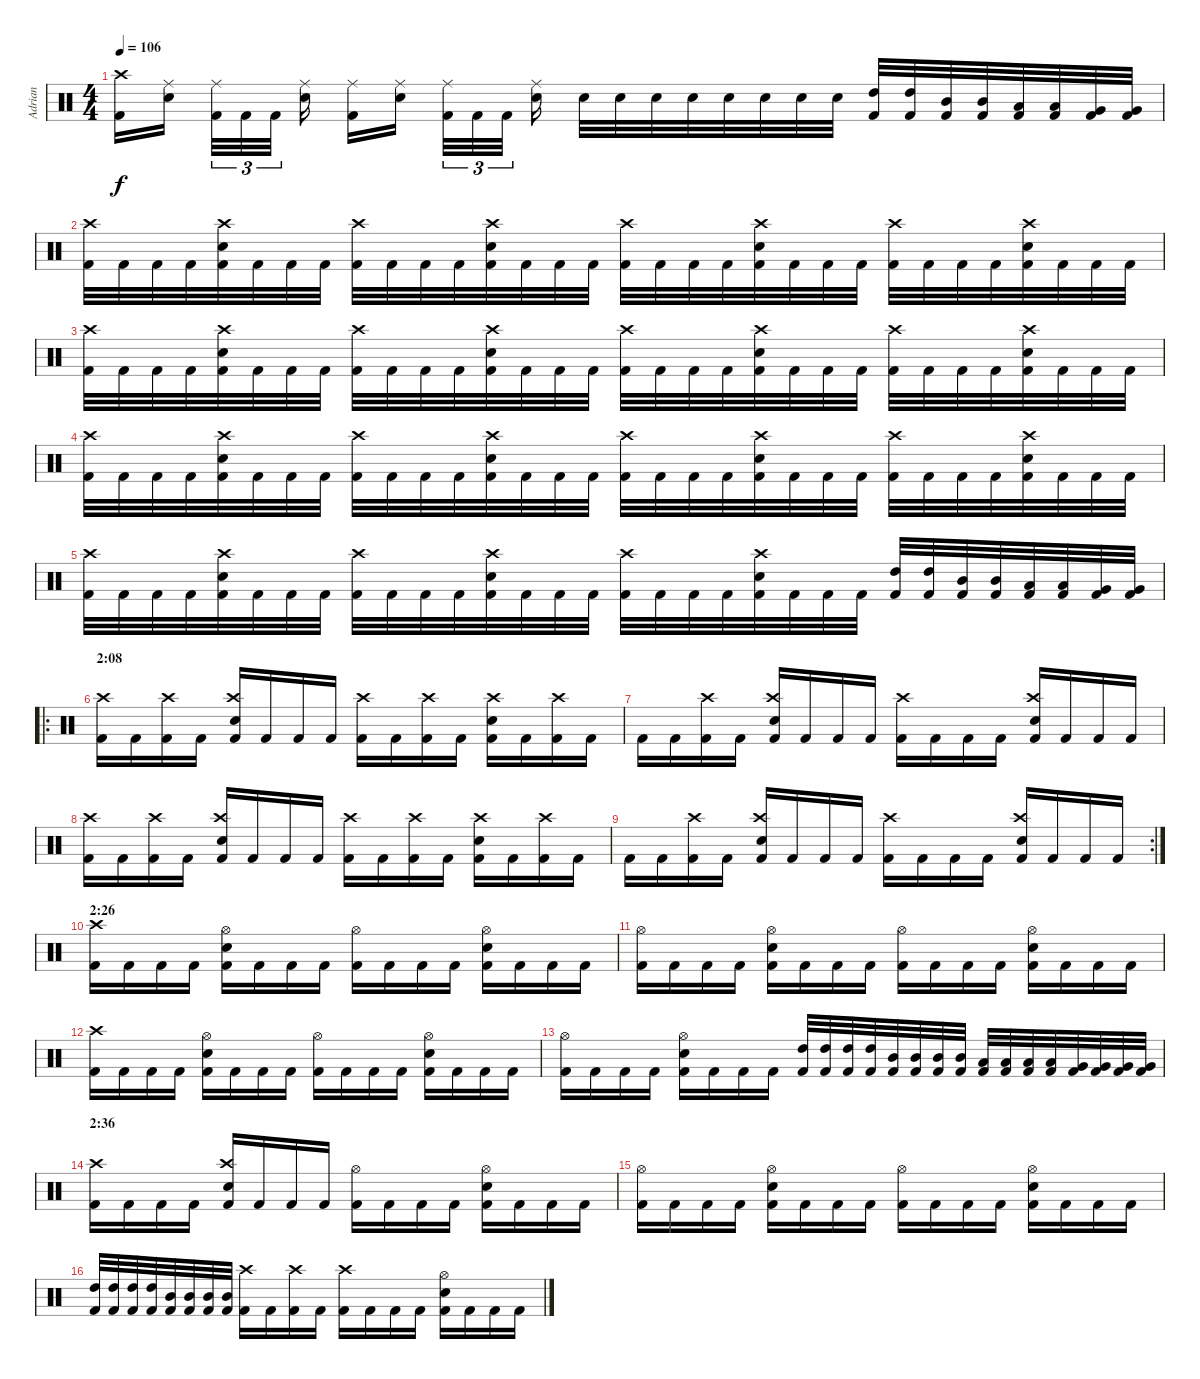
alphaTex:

\track ("Adrian" "Adrian") {instrument percussion}
\staff {score}
\articulation defaults
\ts (4 4)
\tempo 106
\clef neutral
\ks c
("Kick (hit) 2" "Crash high (hit)").16{dy f} ("Snare (hit) 2" "Ride (middle)").16 ("Kick (hit) 2" "Ride (middle)").32{tu (3 2)} "Kick (hit) 2".32{tu (3 2)} "Kick (hit) 2".32{tu (3 2)} ("Snare (hit) 2" "Ride (middle)").16 ("Kick (hit) 2" "Ride (middle)").16 ("Snare (hit) 2" "Ride (middle)").16 ("Kick (hit) 2" "Ride (middle)").32{tu (3 2)} "Kick (hit) 2".32{tu (3 2)} "Kick (hit) 2".32{tu (3 2)} ("Snare (hit) 2" "Ride (middle)").16 "Snare (hit) 2".32 "Snare (hit) 2".32 "Snare (hit) 2".32 "Snare (hit) 2".32 "Snare (hit) 2".32 "Snare (hit) 2".32 "Snare (hit) 2".32 "Snare (hit) 2".32 ("Kick (hit) 2" "High Tom (hit)").32 ("Kick (hit) 2" "High Tom (hit)").32 ("Kick (hit) 2" "Mid Tom (hit)").32 ("Kick (hit) 2" "Mid Tom (hit)").32 ("Kick (hit) 2" "Low Tom (hit)").32 ("Kick (hit) 2" "Low Tom (hit)").32 ("Kick (hit) 2" "Very Low Tom (hit)").32 ("Kick (hit) 2" "Very Low Tom (hit)").32 |
("Kick (hit) 2" "Crash high (hit)").32 "Kick (hit) 2".32 "Kick (hit) 2".32 "Kick (hit) 2".32 ("Kick (hit) 2" "Snare (hit) 2" "Crash high (hit)").32 "Kick (hit) 2".32 "Kick (hit) 2".32 "Kick (hit) 2".32 ("Kick (hit) 2" "Crash high (hit)").32 "Kick (hit) 2".32 "Kick (hit) 2".32 "Kick (hit) 2".32 ("Kick (hit) 2" "Snare (hit) 2" "Crash high (hit)").32 "Kick (hit) 2".32 "Kick (hit) 2".32 "Kick (hit) 2".32 ("Kick (hit) 2" "Crash high (hit)").32 "Kick (hit) 2".32 "Kick (hit) 2".32 "Kick (hit) 2".32 ("Kick (hit) 2" "Snare (hit) 2" "Crash high (hit)").32 "Kick (hit) 2".32 "Kick (hit) 2".32 "Kick (hit) 2".32 ("Kick (hit) 2" "Crash high (hit)").32 "Kick (hit) 2".32 "Kick (hit) 2".32 "Kick (hit) 2".32 ("Kick (hit) 2" "Snare (hit) 2" "Crash high (hit)").32 "Kick (hit) 2".32 "Kick (hit) 2".32 "Kick (hit) 2".32 |
("Kick (hit) 2" "Crash high (hit)").32 "Kick (hit) 2".32 "Kick (hit) 2".32 "Kick (hit) 2".32 ("Kick (hit) 2" "Snare (hit) 2" "Crash high (hit)").32 "Kick (hit) 2".32 "Kick (hit) 2".32 "Kick (hit) 2".32 ("Kick (hit) 2" "Crash high (hit)").32 "Kick (hit) 2".32 "Kick (hit) 2".32 "Kick (hit) 2".32 ("Kick (hit) 2" "Snare (hit) 2" "Crash high (hit)").32 "Kick (hit) 2".32 "Kick (hit) 2".32 "Kick (hit) 2".32 ("Kick (hit) 2" "Crash high (hit)").32 "Kick (hit) 2".32 "Kick (hit) 2".32 "Kick (hit) 2".32 ("Kick (hit) 2" "Snare (hit) 2" "Crash high (hit)").32 "Kick (hit) 2".32 "Kick (hit) 2".32 "Kick (hit) 2".32 ("Kick (hit) 2" "Crash high (hit)").32 "Kick (hit) 2".32 "Kick (hit) 2".32 "Kick (hit) 2".32 ("Kick (hit) 2" "Snare (hit) 2" "Crash high (hit)").32 "Kick (hit) 2".32 "Kick (hit) 2".32 "Kick (hit) 2".32 |
("Kick (hit) 2" "Crash high (hit)").32 "Kick (hit) 2".32 "Kick (hit) 2".32 "Kick (hit) 2".32 ("Kick (hit) 2" "Snare (hit) 2" "Crash high (hit)").32 "Kick (hit) 2".32 "Kick (hit) 2".32 "Kick (hit) 2".32 ("Kick (hit) 2" "Crash high (hit)").32 "Kick (hit) 2".32 "Kick (hit) 2".32 "Kick (hit) 2".32 ("Kick (hit) 2" "Snare (hit) 2" "Crash high (hit)").32 "Kick (hit) 2".32 "Kick (hit) 2".32 "Kick (hit) 2".32 ("Kick (hit) 2" "Crash high (hit)").32 "Kick (hit) 2".32 "Kick (hit) 2".32 "Kick (hit) 2".32 ("Kick (hit) 2" "Snare (hit) 2" "Crash high (hit)").32 "Kick (hit) 2".32 "Kick (hit) 2".32 "Kick (hit) 2".32 ("Kick (hit) 2" "Crash high (hit)").32 "Kick (hit) 2".32 "Kick (hit) 2".32 "Kick (hit) 2".32 ("Kick (hit) 2" "Snare (hit) 2" "Crash high (hit)").32 "Kick (hit) 2".32 "Kick (hit) 2".32 "Kick (hit) 2".32 |
("Kick (hit) 2" "Crash high (hit)").32 "Kick (hit) 2".32 "Kick (hit) 2".32 "Kick (hit) 2".32 ("Kick (hit) 2" "Snare (hit) 2" "Crash high (hit)").32 "Kick (hit) 2".32 "Kick (hit) 2".32 "Kick (hit) 2".32 ("Kick (hit) 2" "Crash high (hit)").32 "Kick (hit) 2".32 "Kick (hit) 2".32 "Kick (hit) 2".32 ("Kick (hit) 2" "Snare (hit) 2" "Crash high (hit)").32 "Kick (hit) 2".32 "Kick (hit) 2".32 "Kick (hit) 2".32 ("Kick (hit) 2" "Crash high (hit)").32 "Kick (hit) 2".32 "Kick (hit) 2".32 "Kick (hit) 2".32 ("Kick (hit) 2" "Snare (hit) 2" "Crash high (hit)").32 "Kick (hit) 2".32 "Kick (hit) 2".32 "Kick (hit) 2".32 ("Kick (hit) 2" "High Tom (hit)").32 ("Kick (hit) 2" "High Tom (hit)").32 ("Kick (hit) 2" "Mid Tom (hit)").32 ("Kick (hit) 2" "Mid Tom (hit)").32 ("Kick (hit) 2" "Low Tom (hit)").32 ("Kick (hit) 2" "Low Tom (hit)").32 ("Kick (hit) 2" "Very Low Tom (hit)").32 ("Kick (hit) 2" "Very Low Tom (hit)").32 |
\ro
\section ("" "2:08")
("Kick (hit) 2" "Crash high (hit)").16 "Kick (hit) 2".16 ("Kick (hit) 2" "Crash high (hit)").16 "Kick (hit) 2".16 ("Kick (hit) 2" "Snare (hit) 2" "Crash high (hit)").16 "Kick (hit) 2".16 "Kick (hit) 2".16 "Kick (hit) 2".16 ("Kick (hit) 2" "Crash high (hit)").16 "Kick (hit) 2".16 ("Kick (hit) 2" "Crash high (hit)").16 "Kick (hit) 2".16 ("Kick (hit) 2" "Snare (hit) 2" "Crash high (hit)").16 "Kick (hit) 2".16 ("Kick (hit) 2" "Crash high (hit)").16 "Kick (hit) 2".16 |
"Kick (hit) 2".16 "Kick (hit) 2".16 ("Kick (hit) 2" "Crash high (hit)").16 "Kick (hit) 2".16 ("Kick (hit) 2" "Snare (hit) 2" "Crash high (hit)").16 "Kick (hit) 2".16 "Kick (hit) 2".16 "Kick (hit) 2".16 ("Kick (hit) 2" "Crash high (hit)").16 "Kick (hit) 2".16 "Kick (hit) 2".16 "Kick (hit) 2".16 ("Kick (hit) 2" "Snare (hit) 2" "Crash high (hit)").16 "Kick (hit) 2".16 "Kick (hit) 2".16 "Kick (hit) 2".16 |
("Kick (hit) 2" "Crash high (hit)").16 "Kick (hit) 2".16 ("Kick (hit) 2" "Crash high (hit)").16 "Kick (hit) 2".16 ("Kick (hit) 2" "Snare (hit) 2" "Crash high (hit)").16 "Kick (hit) 2".16 "Kick (hit) 2".16 "Kick (hit) 2".16 ("Kick (hit) 2" "Crash high (hit)").16 "Kick (hit) 2".16 ("Kick (hit) 2" "Crash high (hit)").16 "Kick (hit) 2".16 ("Kick (hit) 2" "Snare (hit) 2" "Crash high (hit)").16 "Kick (hit) 2".16 ("Kick (hit) 2" "Crash high (hit)").16 "Kick (hit) 2".16 |
\rc 2 "Kick (hit) 2".16 "Kick (hit) 2".16
("Kick (hit) 2" "Crash high (hit)").16 "Kick (hit) 2".16 ("Kick (hit) 2" "Snare (hit) 2" "Crash high (hit)").16 "Kick (hit) 2".16 "Kick (hit) 2".16 "Kick (hit) 2".16 ("Kick (hit) 2" "Crash high (hit)").16 "Kick (hit) 2".16 "Kick (hit) 2".16 "Kick (hit) 2".16 ("Kick (hit) 2" "Snare (hit) 2" "Crash high (hit)").16 "Kick (hit) 2".16 "Kick (hit) 2".16 "Kick (hit) 2".16 |
\section ("" "2:26")
("Kick (hit) 2" "Crash high (hit)").16 "Kick (hit) 2".16 "Kick (hit) 2".16 "Kick (hit) 2".16 ("Kick (hit) 2" "Snare (hit) 2" "Hi-Hat (open)").16 "Kick (hit) 2".16 "Kick (hit) 2".16 "Kick (hit) 2".16 ("Kick (hit) 2" "Hi-Hat (open)").16 "Kick (hit) 2".16 "Kick (hit) 2".16 "Kick (hit) 2".16 ("Kick (hit) 2" "Snare (hit) 2" "Hi-Hat (open)").16 "Kick (hit) 2".16 "Kick (hit) 2".16 "Kick (hit) 2".16 |
("Kick (hit) 2" "Hi-Hat (open)").16 "Kick (hit) 2".16 "Kick (hit) 2".16 "Kick (hit) 2".16 ("Kick (hit) 2" "Snare (hit) 2" "Hi-Hat (open)").16 "Kick (hit) 2".16 "Kick (hit) 2".16 "Kick (hit) 2".16 ("Kick (hit) 2" "Hi-Hat (open)").16 "Kick (hit) 2".16 "Kick (hit) 2".16 "Kick (hit) 2".16 ("Kick (hit) 2" "Snare (hit) 2" "Hi-Hat (open)").16 "Kick (hit) 2".16 "Kick (hit) 2".16 "Kick (hit) 2".16 |
("Kick (hit) 2" "Crash high (hit)").16 "Kick (hit) 2".16 "Kick (hit) 2".16 "Kick (hit) 2".16 ("Kick (hit) 2" "Snare (hit) 2" "Hi-Hat (open)").16 "Kick (hit) 2".16 "Kick (hit) 2".16 "Kick (hit) 2".16 ("Kick (hit) 2" "Hi-Hat (open)").16 "Kick (hit) 2".16 "Kick (hit) 2".16 "Kick (hit) 2".16 ("Kick (hit) 2" "Snare (hit) 2" "Hi-Hat (open)").16 "Kick (hit) 2".16 "Kick (hit) 2".16 "Kick (hit) 2".16 |
("Kick (hit) 2" "Hi-Hat (open)").16 "Kick (hit) 2".16 "Kick (hit) 2".16 "Kick (hit) 2".16 ("Kick (hit) 2" "Snare (hit) 2" "Hi-Hat (open)").16 "Kick (hit) 2".16 "Kick (hit) 2".16 "Kick (hit) 2".16 ("Kick (hit) 2" "High Tom (hit)").32 ("Kick (hit) 2" "High Tom (hit)").32 ("Kick (hit) 2" "High Tom (hit)").32 ("Kick (hit) 2" "High Tom (hit)").32 ("Kick (hit) 2" "Mid Tom (hit)").32 ("Kick (hit) 2" "Mid Tom (hit)").32 ("Kick (hit) 2" "Mid Tom (hit)").32 ("Kick (hit) 2" "Mid Tom (hit)").32 ("Kick (hit) 2" "Low Tom (hit)").32 ("Kick (hit) 2" "Low Tom (hit)").32 ("Kick (hit) 2" "Low Tom (hit)").32 ("Kick (hit) 2" "Low Tom (hit)").32 ("Kick (hit) 2" "Very Low Tom (hit)").32 ("Kick (hit) 2" "Very Low Tom (hit)").32 ("Kick (hit) 2" "Very Low Tom (hit)").32 ("Kick (hit) 2" "Very Low Tom (hit)").32 |
\section ("" "2:36")
("Kick (hit) 2" "Crash high (hit)").16 "Kick (hit) 2".16 "Kick (hit) 2".16 "Kick (hit) 2".16 ("Kick (hit) 2" "Snare (hit) 2" "Crash high (hit)").16 "Kick (hit) 2".16 "Kick (hit) 2".16 "Kick (hit) 2".16 ("Kick (hit) 2" "Hi-Hat (open)").16 "Kick (hit) 2".16 "Kick (hit) 2".16 "Kick (hit) 2".16 ("Kick (hit) 2" "Snare (hit) 2" "Hi-Hat (open)").16 "Kick (hit) 2".16 "Kick (hit) 2".16 "Kick (hit) 2".16 |
("Kick (hit) 2" "Hi-Hat (open)").16 "Kick (hit) 2".16 "Kick (hit) 2".16 "Kick (hit) 2".16 ("Kick (hit) 2" "Snare (hit) 2" "Hi-Hat (open)").16 "Kick (hit) 2".16 "Kick (hit) 2".16 "Kick (hit) 2".16 ("Kick (hit) 2" "Hi-Hat (open)").16 "Kick (hit) 2".16 "Kick (hit) 2".16 "Kick (hit) 2".16 ("Kick (hit) 2" "Snare (hit) 2" "Hi-Hat (open)").16 "Kick (hit) 2".16 "Kick (hit) 2".16 "Kick (hit) 2".16 |
("Kick (hit) 2" "High Tom (hit)").32 ("Kick (hit) 2" "High Tom (hit)").32 ("Kick (hit) 2" "High Tom (hit)").32 ("Kick (hit) 2" "High Tom (hit)").32 ("Kick (hit) 2" "Mid Tom (hit)").32 ("Kick (hit) 2" "Mid Tom (hit)").32 ("Kick (hit) 2" "Mid Tom (hit)").32 ("Kick (hit) 2" "Mid Tom (hit)").32 ("Kick (hit) 2" "Crash high (hit)").16 "Kick (hit) 2".16 ("Kick (hit) 2" "Crash high (hit)").16 "Kick (hit) 2".16 ("Kick (hit) 2" "Crash high (hit)").16 "Kick (hit) 2".16 "Kick (hit) 2".16 "Kick (hit) 2".16 ("Kick (hit) 2" "Snare (hit) 2" "Hi-Hat (open)").16 "Kick (hit) 2".16 "Kick (hit) 2".16 "Kick (hit) 2".16
